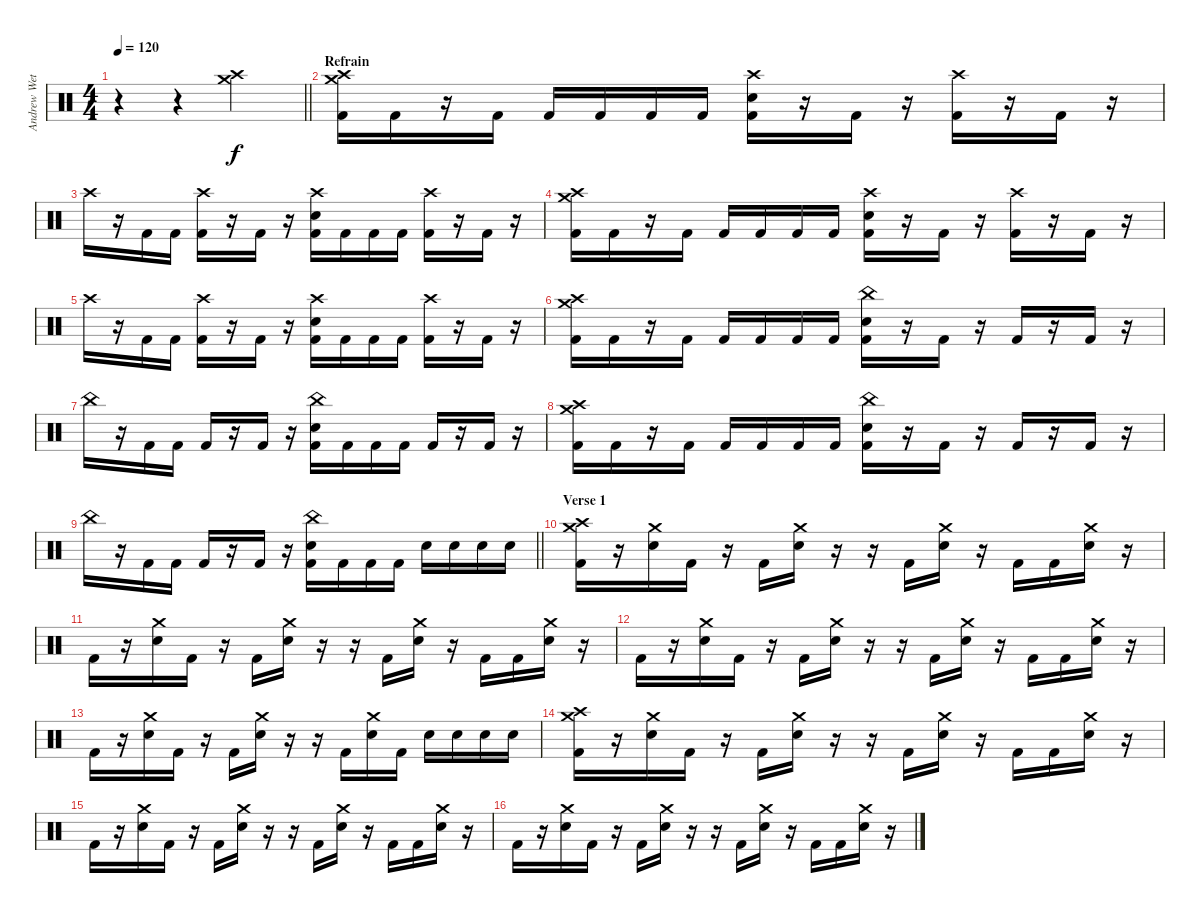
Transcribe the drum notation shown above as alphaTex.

\track ("Andrew Wetzel - Drums" "Andrew Wet") {instrument percussion}
\staff {score}
\articulation defaults
\ts (4 4)
\tempo 120
\clef neutral
\barLineRight lightlight
\ks c
r.4{dy f} r.4{volume 0} ("Crash high (hit)" "Crash medium (hit)").2{volume 13} |
\section ("" "Refrain")
("Crash high (hit)" "Crash medium (hit)" "Kick (hit) 2").16{volume 12} "Kick (hit) 2".16 r.16 "Kick (hit) 2".16 "Kick (hit) 2".16 "Kick (hit) 2".16 "Kick (hit) 2".16 "Kick (hit) 2".16 ("Crash high (hit)" "Electric Snare (hit)" "Kick (hit) 2").16{volume 16} r.16 "Kick (hit) 2".16 r.16 ("Crash high (hit)" "Kick (hit) 2").16 r.16 "Kick (hit) 2".16 r.16 |
"Crash high (hit)".16 r.16 "Kick (hit) 2".16 "Kick (hit) 2".16 ("Crash high (hit)" "Kick (hit) 2").16 r.16 "Kick (hit) 2".16 r.16 ("Crash high (hit)" "Electric Snare (hit)" "Kick (hit) 2").16 "Kick (hit) 2".16 "Kick (hit) 2".16 "Kick (hit) 2".16 ("Crash high (hit)" "Kick (hit) 2").16 r.16 "Kick (hit) 2".16 r.16 |
("Crash high (hit)" "Crash medium (hit)" "Kick (hit) 2").16 "Kick (hit) 2".16 r.16 "Kick (hit) 2".16 "Kick (hit) 2".16 "Kick (hit) 2".16 "Kick (hit) 2".16 "Kick (hit) 2".16 ("Crash high (hit)" "Electric Snare (hit)" "Kick (hit) 2").16 r.16 "Kick (hit) 2".16 r.16 ("Crash high (hit)" "Kick (hit) 2").16 r.16 "Kick (hit) 2".16 r.16 |
"Crash high (hit)".16 r.16 "Kick (hit) 2".16 "Kick (hit) 2".16 ("Crash high (hit)" "Kick (hit) 2").16 r.16 "Kick (hit) 2".16 r.16 ("Crash high (hit)" "Electric Snare (hit)" "Kick (hit) 2").16 "Kick (hit) 2".16 "Kick (hit) 2".16 "Kick (hit) 2".16 ("Crash high (hit)" "Kick (hit) 2").16 r.16 "Kick (hit) 2".16 r.16 |
("Crash high (hit)" "Crash medium (hit)" "Kick (hit) 2").16 "Kick (hit) 2".16 r.16 "Kick (hit) 2".16 "Kick (hit) 2".16 "Kick (hit) 2".16 "Kick (hit) 2".16 "Kick (hit) 2".16 ("China (hit)" "Electric Snare (hit)" "Kick (hit) 2").16 r.16 "Kick (hit) 2".16 r.16 "Kick (hit) 2".16 r.16 "Kick (hit) 2".16 r.16 |
"China (hit)".16 r.16 "Kick (hit) 2".16 "Kick (hit) 2".16 "Kick (hit) 2".16 r.16 "Kick (hit) 2".16 r.16 ("China (hit)" "Electric Snare (hit)" "Kick (hit) 2").16 "Kick (hit) 2".16 "Kick (hit) 2".16 "Kick (hit) 2".16 "Kick (hit) 2".16 r.16 "Kick (hit) 2".16 r.16 |
("Crash high (hit)" "Crash medium (hit)" "Kick (hit) 2").16 "Kick (hit) 2".16 r.16 "Kick (hit) 2".16 "Kick (hit) 2".16 "Kick (hit) 2".16 "Kick (hit) 2".16 "Kick (hit) 2".16 ("China (hit)" "Electric Snare (hit)" "Kick (hit) 2").16 r.16 "Kick (hit) 2".16 r.16 "Kick (hit) 2".16 r.16 "Kick (hit) 2".16 r.16 |
\barLineRight lightlight "China (hit)".16
r.16 "Kick (hit) 2".16 "Kick (hit) 2".16 "Kick (hit) 2".16 r.16 "Kick (hit) 2".16 r.16 ("China (hit)" "Electric Snare (hit)" "Kick (hit) 2").16 "Kick (hit) 2".16 "Kick (hit) 2".16 "Kick (hit) 2".16 "Electric Snare (hit)".16 "Electric Snare (hit)".16 "Electric Snare (hit)".16 "Electric Snare (hit)".16 |
\section ("" "Verse 1")
("Crash high (hit)" "Crash medium (hit)" "Kick (hit) 2").16 r.16 ("Crash medium (hit)" "Electric Snare (hit)").16 "Kick (hit) 2".16 r.16 "Kick (hit) 2".16 ("Crash medium (hit)" "Electric Snare (hit)").16 r.16 r.16 "Kick (hit) 2".16 ("Crash medium (hit)" "Electric Snare (hit)").16 r.16 "Kick (hit) 2".16 "Kick (hit) 2".16 ("Crash medium (hit)" "Electric Snare (hit)").16 r.16 |
"Kick (hit) 2".16 r.16 ("Crash medium (hit)" "Electric Snare (hit)").16 "Kick (hit) 2".16 r.16 "Kick (hit) 2".16 ("Crash medium (hit)" "Electric Snare (hit)").16 r.16 r.16 "Kick (hit) 2".16 ("Crash medium (hit)" "Electric Snare (hit)").16 r.16 "Kick (hit) 2".16 "Kick (hit) 2".16 ("Crash medium (hit)" "Electric Snare (hit)").16 r.16 |
"Kick (hit) 2".16 r.16 ("Crash medium (hit)" "Electric Snare (hit)").16 "Kick (hit) 2".16 r.16 "Kick (hit) 2".16 ("Crash medium (hit)" "Electric Snare (hit)").16 r.16 r.16 "Kick (hit) 2".16 ("Crash medium (hit)" "Electric Snare (hit)").16 r.16 "Kick (hit) 2".16 "Kick (hit) 2".16 ("Crash medium (hit)" "Electric Snare (hit)").16 r.16 |
"Kick (hit) 2".16 r.16 ("Crash medium (hit)" "Electric Snare (hit)").16 "Kick (hit) 2".16 r.16 "Kick (hit) 2".16 ("Crash medium (hit)" "Electric Snare (hit)").16 r.16 r.16 "Kick (hit) 2".16 ("Crash medium (hit)" "Electric Snare (hit)").16 "Kick (hit) 2".16 "Electric Snare (hit)".16 "Electric Snare (hit)".16 "Electric Snare (hit)".16 "Electric Snare (hit)".16 |
("Crash high (hit)" "Crash medium (hit)" "Kick (hit) 2").16 r.16 ("Crash medium (hit)" "Electric Snare (hit)").16 "Kick (hit) 2".16 r.16 "Kick (hit) 2".16 ("Crash medium (hit)" "Electric Snare (hit)").16 r.16 r.16 "Kick (hit) 2".16 ("Crash medium (hit)" "Electric Snare (hit)").16 r.16 "Kick (hit) 2".16 "Kick (hit) 2".16 ("Crash medium (hit)" "Electric Snare (hit)").16 r.16 |
"Kick (hit) 2".16 r.16 ("Crash medium (hit)" "Electric Snare (hit)").16 "Kick (hit) 2".16 r.16 "Kick (hit) 2".16 ("Crash medium (hit)" "Electric Snare (hit)").16 r.16 r.16 "Kick (hit) 2".16 ("Crash medium (hit)" "Electric Snare (hit)").16 r.16 "Kick (hit) 2".16 "Kick (hit) 2".16 ("Crash medium (hit)" "Electric Snare (hit)").16 r.16 |
"Kick (hit) 2".16 r.16 ("Crash medium (hit)" "Electric Snare (hit)").16 "Kick (hit) 2".16 r.16 "Kick (hit) 2".16 ("Crash medium (hit)" "Electric Snare (hit)").16 r.16 r.16 "Kick (hit) 2".16 ("Crash medium (hit)" "Electric Snare (hit)").16 r.16 "Kick (hit) 2".16 "Kick (hit) 2".16 ("Crash medium (hit)" "Electric Snare (hit)").16 r.16
